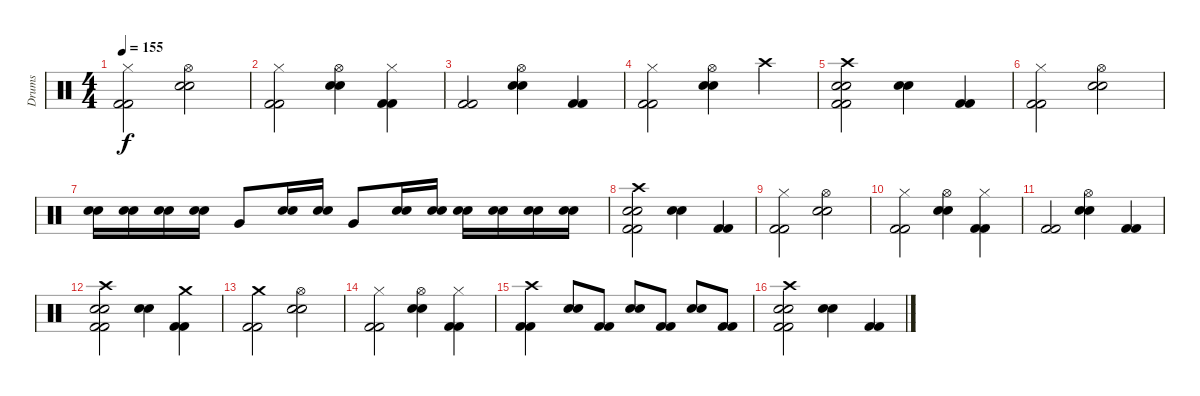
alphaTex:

\track ("Drums" "Drums") {instrument percussion}
\staff {score}
\articulation defaults
\ts (4 4)
\tempo 155
\clef neutral
\ks c
("Hi-Hat (closed)" "Kick (hit) 2" "Kick (hit) 2").2{dy f} ("Hi-Hat (open)" "Snare (hit) 2" "Snare (hit) 2").2 |
("Hi-Hat (closed)" "Kick (hit) 2" "Kick (hit) 2").2 ("Hi-Hat (open)" "Snare (hit) 2" "Snare (hit) 2").4 ("Hi-Hat (closed)" "Kick (hit) 2" "Kick (hit) 2").4 |
("Kick (hit) 2" "Kick (hit) 2").2 ("Hi-Hat (open)" "Snare (hit) 2" "Snare (hit) 2").4 ("Kick (hit) 2" "Kick (hit) 2").4 |
("Hi-Hat (closed)" "Kick (hit) 2" "Kick (hit) 2").2 ("Hi-Hat (open)" "Snare (hit) 2" "Snare (hit) 2").4 "Crash high (hit)".4 |
("Crash high (hit)" "Snare (hit) 2" "Snare (hit) 2" "Kick (hit) 2" "Kick (hit) 2").2 ("Snare (hit) 2" "Snare (hit) 2").4 ("Kick (hit) 2" "Kick (hit) 2").4 |
("Hi-Hat (closed)" "Kick (hit) 2" "Kick (hit) 2").2 ("Hi-Hat (open)" "Snare (hit) 2" "Snare (hit) 2").2 |
("Snare (hit) 2" "Snare (hit) 2").16 ("Snare (hit) 2" "Snare (hit) 2").16 ("Snare (hit) 2" "Snare (hit) 2").16 ("Snare (hit) 2" "Snare (hit) 2").16 "Very Low Tom (hit)".8 ("Snare (hit) 2" "Snare (hit) 2").16 ("Snare (hit) 2" "Snare (hit) 2").16 "Very Low Tom (hit)".8 ("Snare (hit) 2" "Snare (hit) 2").16 ("Snare (hit) 2" "Snare (hit) 2").16 ("Snare (hit) 2" "Snare (hit) 2").16 ("Snare (hit) 2" "Snare (hit) 2").16 ("Snare (hit) 2" "Snare (hit) 2").16 ("Snare (hit) 2" "Snare (hit) 2").16 |
("Crash high (hit)" "Snare (hit) 2" "Snare (hit) 2" "Kick (hit) 2" "Kick (hit) 2").2 ("Snare (hit) 2" "Snare (hit) 2").4 ("Kick (hit) 2" "Kick (hit) 2").4 |
("Hi-Hat (closed)" "Kick (hit) 2" "Kick (hit) 2").2 ("Hi-Hat (open)" "Snare (hit) 2" "Snare (hit) 2").2 |
("Hi-Hat (closed)" "Kick (hit) 2" "Kick (hit) 2").2 ("Hi-Hat (open)" "Snare (hit) 2" "Snare (hit) 2").4 ("Hi-Hat (closed)" "Kick (hit) 2" "Kick (hit) 2").4 |
("Kick (hit) 2" "Kick (hit) 2").2 ("Hi-Hat (open)" "Snare (hit) 2" "Snare (hit) 2").4 ("Kick (hit) 2" "Kick (hit) 2").4 |
("Crash high (hit)" "Snare (hit) 2" "Snare (hit) 2" "Kick (hit) 2" "Kick (hit) 2").2 ("Snare (hit) 2" "Snare (hit) 2").4 ("Crash medium (hit)" "Kick (hit) 2" "Kick (hit) 2").4 |
("Crash medium (hit)" "Kick (hit) 2" "Kick (hit) 2").2 ("Hi-Hat (open)" "Snare (hit) 2" "Snare (hit) 2").2 |
("Hi-Hat (closed)" "Kick (hit) 2" "Kick (hit) 2").2 ("Hi-Hat (open)" "Snare (hit) 2" "Snare (hit) 2").4 ("Hi-Hat (closed)" "Kick (hit) 2" "Kick (hit) 2").4 |
("Crash high (hit)" "Kick (hit) 2" "Kick (hit) 2").4 ("Snare (hit) 2" "Snare (hit) 2").8 ("Kick (hit) 2" "Kick (hit) 2").8 ("Snare (hit) 2" "Snare (hit) 2").8 ("Kick (hit) 2" "Kick (hit) 2").8 ("Snare (hit) 2" "Snare (hit) 2").8 ("Kick (hit) 2" "Kick (hit) 2").8 |
\section ("" "")
("Crash high (hit)" "Snare (hit) 2" "Snare (hit) 2" "Kick (hit) 2" "Kick (hit) 2").2 ("Snare (hit) 2" "Snare (hit) 2").4 ("Kick (hit) 2" "Kick (hit) 2").4
